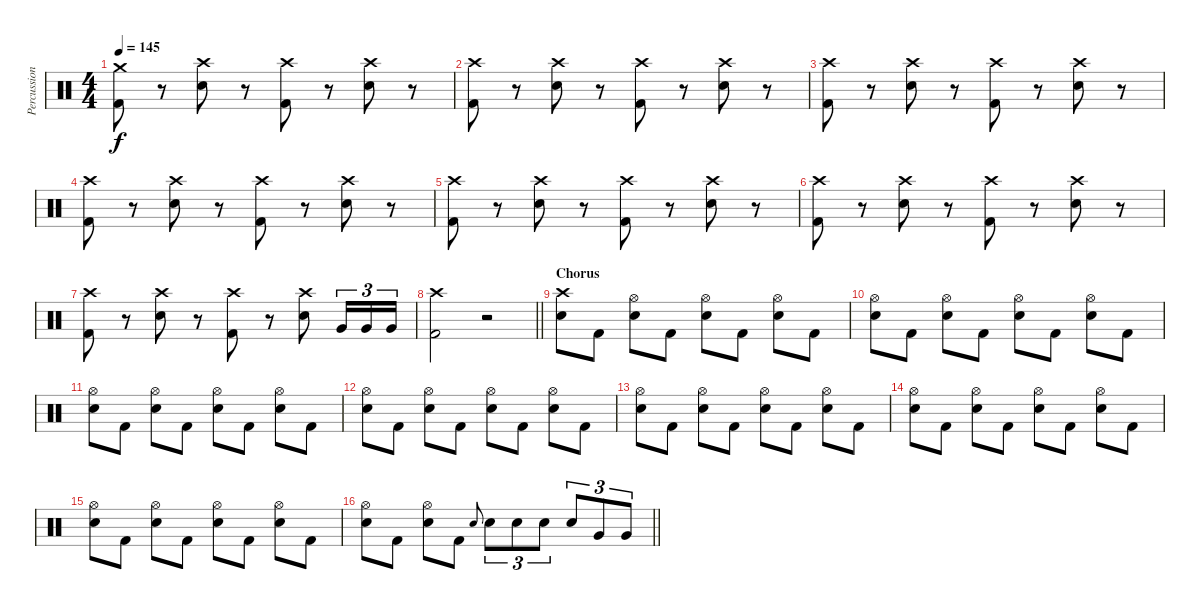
\track ("Percussion" "Percussion") {instrument percussion}
\staff {score}
\articulation defaults
\ts (4 4)
\tempo 145
\clef neutral
\ks c
("Crash medium (hit)" "Kick (hit) 2").8{dy f} r.8 ("Crash high (hit)" "Snare (hit) 2").8 r.8 ("Crash high (hit)" "Kick (hit) 2").8 r.8 ("Crash high (hit)" "Snare (hit) 2").8 r.8 |
("Crash high (hit)" "Kick (hit) 2").8 r.8 ("Crash high (hit)" "Snare (hit) 2").8 r.8 ("Crash high (hit)" "Kick (hit) 2").8 r.8 ("Crash high (hit)" "Snare (hit) 2").8 r.8 |
("Crash high (hit)" "Kick (hit) 2").8 r.8 ("Crash high (hit)" "Snare (hit) 2").8 r.8 ("Crash high (hit)" "Kick (hit) 2").8 r.8 ("Crash high (hit)" "Snare (hit) 2").8 r.8 |
("Crash high (hit)" "Kick (hit) 2").8 r.8 ("Crash high (hit)" "Snare (hit) 2").8 r.8 ("Crash high (hit)" "Kick (hit) 2").8 r.8 ("Crash high (hit)" "Snare (hit) 2").8 r.8 |
("Crash high (hit)" "Kick (hit) 2").8 r.8 ("Crash high (hit)" "Snare (hit) 2").8 r.8 ("Crash high (hit)" "Kick (hit) 2").8 r.8 ("Crash high (hit)" "Snare (hit) 2").8 r.8 |
("Crash high (hit)" "Kick (hit) 2").8 r.8 ("Crash high (hit)" "Snare (hit) 2").8 r.8 ("Crash high (hit)" "Kick (hit) 2").8 r.8 ("Crash high (hit)" "Snare (hit) 2").8 r.8 |
("Crash high (hit)" "Kick (hit) 2").8 r.8 ("Crash high (hit)" "Snare (hit) 2").8 r.8 ("Crash high (hit)" "Kick (hit) 2").8 r.8 ("Crash high (hit)" "Snare (hit) 2").8 "Very Low Tom (hit)".16{tu (3 2)} "Very Low Tom (hit)".16{tu (3 2)} "Very Low Tom (hit)".16{tu (3 2)} |
\barLineRight lightlight
("Crash high (hit)" "Kick (hit) 2").2 r.2 |
\section ("" "Chorus")
("Crash high (hit)" "Snare (hit) 2").8 "Kick (hit) 2".8 ("Hi-Hat (open)" "Snare (hit) 2").8 "Kick (hit) 2".8 ("Hi-Hat (open)" "Snare (hit) 2").8 "Kick (hit) 2".8 ("Hi-Hat (open)" "Snare (hit) 2").8 "Kick (hit) 2".8 |
("Hi-Hat (open)" "Snare (hit) 2").8 "Kick (hit) 2".8 ("Hi-Hat (open)" "Snare (hit) 2").8 "Kick (hit) 2".8 ("Hi-Hat (open)" "Snare (hit) 2").8 "Kick (hit) 2".8 ("Hi-Hat (open)" "Snare (hit) 2").8 "Kick (hit) 2".8 |
("Hi-Hat (open)" "Snare (hit) 2").8 "Kick (hit) 2".8 ("Hi-Hat (open)" "Snare (hit) 2").8 "Kick (hit) 2".8 ("Hi-Hat (open)" "Snare (hit) 2").8 "Kick (hit) 2".8 ("Hi-Hat (open)" "Snare (hit) 2").8 "Kick (hit) 2".8 |
("Hi-Hat (open)" "Snare (hit) 2").8 "Kick (hit) 2".8 ("Hi-Hat (open)" "Snare (hit) 2").8 "Kick (hit) 2".8 ("Hi-Hat (open)" "Snare (hit) 2").8 "Kick (hit) 2".8 ("Hi-Hat (open)" "Snare (hit) 2").8 "Kick (hit) 2".8 |
("Hi-Hat (open)" "Snare (hit) 2").8 "Kick (hit) 2".8 ("Hi-Hat (open)" "Snare (hit) 2").8 "Kick (hit) 2".8 ("Hi-Hat (open)" "Snare (hit) 2").8 "Kick (hit) 2".8 ("Hi-Hat (open)" "Snare (hit) 2").8 "Kick (hit) 2".8 |
("Hi-Hat (open)" "Snare (hit) 2").8 "Kick (hit) 2".8 ("Hi-Hat (open)" "Snare (hit) 2").8 "Kick (hit) 2".8 ("Hi-Hat (open)" "Snare (hit) 2").8 "Kick (hit) 2".8 ("Hi-Hat (open)" "Snare (hit) 2").8 "Kick (hit) 2".8 |
("Hi-Hat (open)" "Snare (hit) 2").8 "Kick (hit) 2".8 ("Hi-Hat (open)" "Snare (hit) 2").8 "Kick (hit) 2".8 ("Hi-Hat (open)" "Snare (hit) 2").8 "Kick (hit) 2".8 ("Hi-Hat (open)" "Snare (hit) 2").8 "Kick (hit) 2".8 |
\barLineRight lightlight
("Hi-Hat (open)" "Snare (hit) 2").8 "Kick (hit) 2".8 ("Hi-Hat (open)" "Snare (hit) 2").8 "Kick (hit) 2".8 "Snare (hit) 2".8{gr onbeat} "Snare (hit) 2".8{tu (3 2)} "Snare (hit) 2".8{tu (3 2)} "Snare (hit) 2".8{tu (3 2)} "Snare (hit) 2".8{tu (3 2)} "Very Low Tom (hit)".8{tu (3 2)} "Very Low Tom (hit)".8{tu (3 2)}
